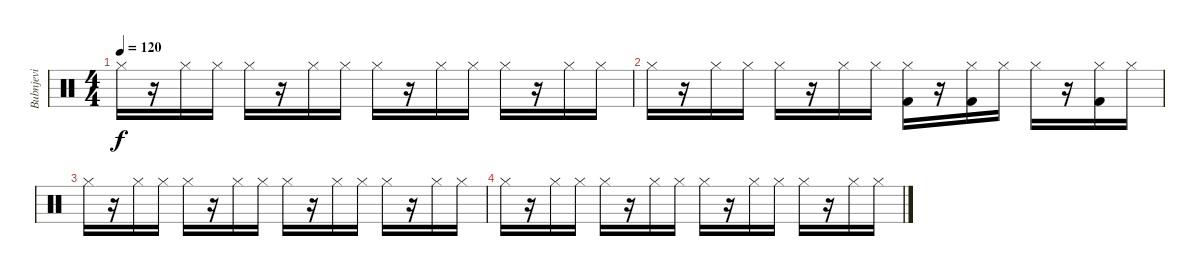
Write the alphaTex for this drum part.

\track ("Bubnjevi" "Bubnjevi") {instrument percussion}
\staff {score}
\articulation defaults
\ts (4 4)
\tempo 120
\clef neutral
\ks c "Hi-Hat (closed)".16{dy f}
r.16 "Hi-Hat (closed)".16 "Hi-Hat (closed)".16 "Hi-Hat (closed)".16 r.16 "Hi-Hat (closed)".16 "Hi-Hat (closed)".16 "Hi-Hat (closed)".16 r.16 "Hi-Hat (closed)".16 "Hi-Hat (closed)".16 "Hi-Hat (closed)".16 r.16 "Hi-Hat (closed)".16 "Hi-Hat (closed)".16 |
"Hi-Hat (closed)".16 r.16 "Hi-Hat (closed)".16 "Hi-Hat (closed)".16 "Hi-Hat (closed)".16 r.16 "Hi-Hat (closed)".16 "Hi-Hat (closed)".16 ("Hi-Hat (closed)" "Kick (hit) 2").16 r.16 ("Hi-Hat (closed)" "Kick (hit) 2").16 "Hi-Hat (closed)".16 "Hi-Hat (closed)".16 r.16 ("Hi-Hat (closed)" "Kick (hit) 2").16 "Hi-Hat (closed)".16 |
"Hi-Hat (closed)".16 r.16 "Hi-Hat (closed)".16 "Hi-Hat (closed)".16 "Hi-Hat (closed)".16 r.16 "Hi-Hat (closed)".16 "Hi-Hat (closed)".16 "Hi-Hat (closed)".16 r.16 "Hi-Hat (closed)".16 "Hi-Hat (closed)".16 "Hi-Hat (closed)".16 r.16 "Hi-Hat (closed)".16 "Hi-Hat (closed)".16 |
"Hi-Hat (closed)".16 r.16 "Hi-Hat (closed)".16 "Hi-Hat (closed)".16 "Hi-Hat (closed)".16 r.16 "Hi-Hat (closed)".16 "Hi-Hat (closed)".16 "Hi-Hat (closed)".16 r.16 "Hi-Hat (closed)".16 "Hi-Hat (closed)".16 "Hi-Hat (closed)".16 r.16 "Hi-Hat (closed)".16 "Hi-Hat (closed)".16
